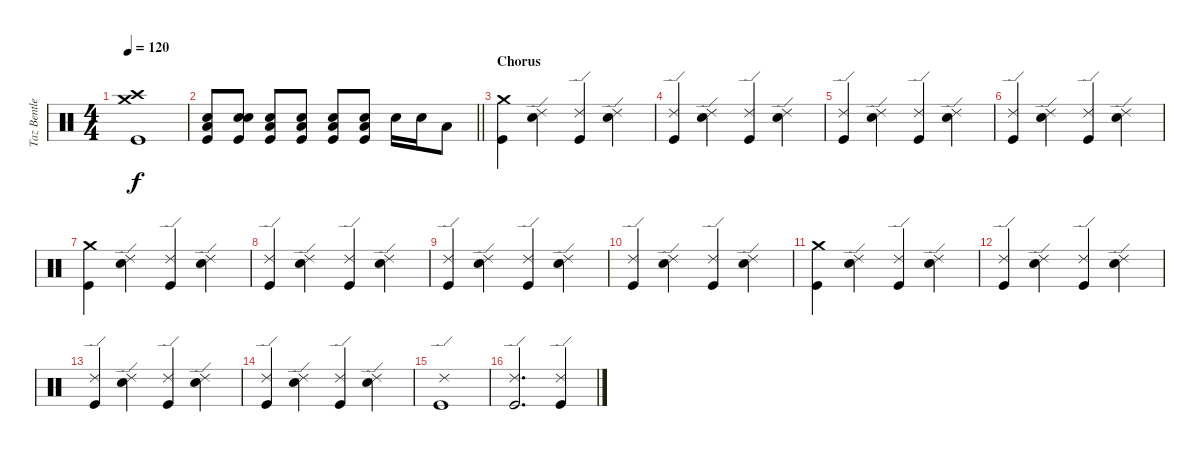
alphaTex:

\track ("Taz Bentley - drums" "Taz Bentle") {instrument percussion}
\staff
\articulation defaults
\ts (4 4)
\tempo 120
\clef neutral
\ks c
("Crash high (hit)" "Crash medium (hit)" "Kick (hit)").1{dy f} |
\barLineRight lightlight
("Electric Snare (hit)" "Low Tom (hit)" "Kick (hit)").8 ("Electric Snare (hit)" "Snare (hit)" "Kick (hit)").8 ("Electric Snare (hit)" "Low Tom (hit)" "Kick (hit)").8 ("Electric Snare (hit)" "Low Tom (hit)" "Kick (hit)").8 ("Electric Snare (hit)" "Low Tom (hit)" "Kick (hit)").8 ("Electric Snare (hit)" "Low Tom (hit)" "Kick (hit)").8 "Electric Snare (hit)".16 "Electric Snare (hit)".16 "Low Tom (hit)".8 |
\section ("" "Chorus")
("Crash medium (hit)" "Kick (hit)").4 ("Ride (edge) 2" "Electric Snare (hit)").4 ("Ride (edge) 2" "Kick (hit)").4 ("Ride (edge) 2" "Electric Snare (hit)").4 |
("Ride (edge) 2" "Kick (hit)").4 ("Ride (edge) 2" "Electric Snare (hit)").4 ("Ride (edge) 2" "Kick (hit)").4 ("Ride (edge) 2" "Electric Snare (hit)").4 |
("Ride (edge) 2" "Kick (hit)").4 ("Ride (edge) 2" "Electric Snare (hit)").4 ("Ride (edge) 2" "Kick (hit)").4 ("Ride (edge) 2" "Electric Snare (hit)").4 |
("Ride (edge) 2" "Kick (hit)").4 ("Ride (edge) 2" "Electric Snare (hit)").4 ("Ride (edge) 2" "Kick (hit)").4 ("Ride (edge) 2" "Electric Snare (hit)").4 |
("Crash medium (hit)" "Kick (hit)").4 ("Ride (edge) 2" "Electric Snare (hit)").4 ("Ride (edge) 2" "Kick (hit)").4 ("Ride (edge) 2" "Electric Snare (hit)").4 |
("Ride (edge) 2" "Kick (hit)").4 ("Ride (edge) 2" "Electric Snare (hit)").4 ("Ride (edge) 2" "Kick (hit)").4 ("Ride (edge) 2" "Electric Snare (hit)").4 |
("Ride (edge) 2" "Kick (hit)").4 ("Ride (edge) 2" "Electric Snare (hit)").4 ("Ride (edge) 2" "Kick (hit)").4 ("Ride (edge) 2" "Electric Snare (hit)").4 |
("Ride (edge) 2" "Kick (hit)").4 ("Ride (edge) 2" "Electric Snare (hit)").4 ("Ride (edge) 2" "Kick (hit)").4 ("Ride (edge) 2" "Electric Snare (hit)").4 |
("Crash medium (hit)" "Kick (hit)").4 ("Ride (edge) 2" "Electric Snare (hit)").4 ("Ride (edge) 2" "Kick (hit)").4 ("Ride (edge) 2" "Electric Snare (hit)").4 |
("Ride (edge) 2" "Kick (hit)").4 ("Ride (edge) 2" "Electric Snare (hit)").4 ("Ride (edge) 2" "Kick (hit)").4 ("Ride (edge) 2" "Electric Snare (hit)").4 |
("Ride (edge) 2" "Kick (hit)").4 ("Ride (edge) 2" "Electric Snare (hit)").4 ("Ride (edge) 2" "Kick (hit)").4 ("Ride (edge) 2" "Electric Snare (hit)").4 |
("Ride (edge) 2" "Kick (hit)").4 ("Ride (edge) 2" "Electric Snare (hit)").4 ("Ride (edge) 2" "Kick (hit)").4 ("Ride (edge) 2" "Electric Snare (hit)").4 |
("Ride (edge) 2" "Kick (hit)").1 |
("Ride (edge) 2" "Kick (hit)").2{d} ("Ride (edge) 2" "Kick (hit)").4
